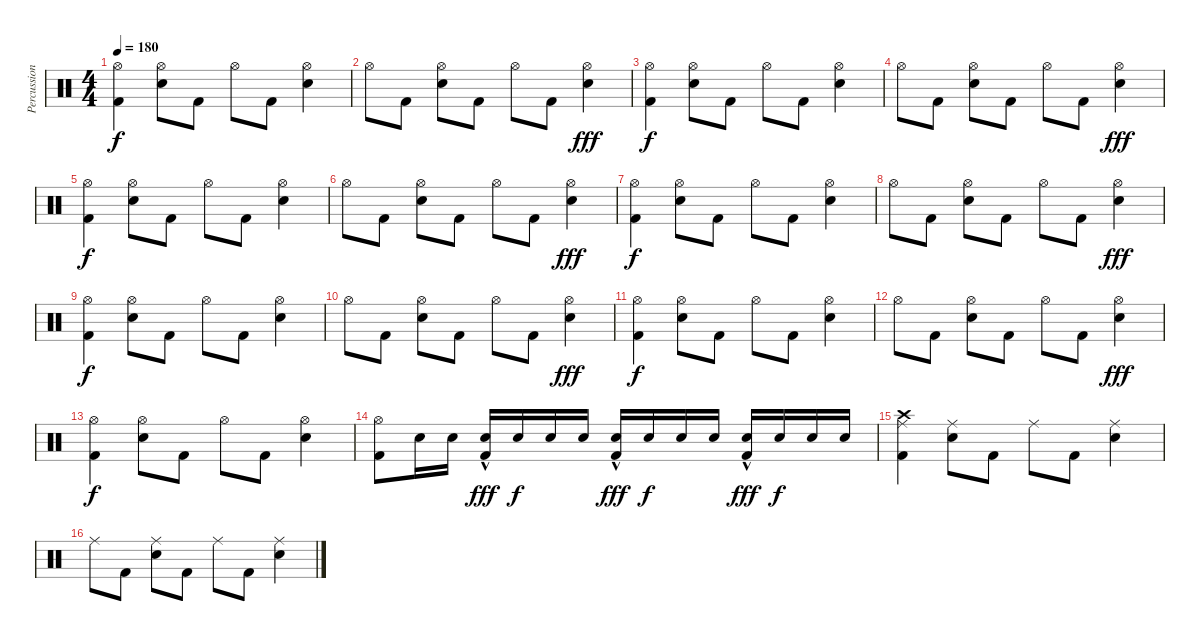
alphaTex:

\track ("Percussion" "Percussion") {instrument percussion}
\staff {score}
\articulation defaults
\ts (4 4)
\tempo 180
\clef neutral
\ks c
("Hi-Hat (open)" "Kick (hit) 2").4{dy f} ("Hi-Hat (open)" "Electric Snare (hit)").8 "Kick (hit) 2".8 "Hi-Hat (open)".8 "Kick (hit) 2".8 ("Hi-Hat (open)" "Electric Snare (hit)").4 |
"Hi-Hat (open)".8 "Kick (hit) 2".8 ("Hi-Hat (open)" "Electric Snare (hit)").8 "Kick (hit) 2".8 "Hi-Hat (open)".8 "Kick (hit) 2".8 ("Hi-Hat (open)" "Electric Snare (hit)").4{dy fff} |
("Hi-Hat (open)" "Kick (hit) 2").4{dy f} ("Hi-Hat (open)" "Electric Snare (hit)").8 "Kick (hit) 2".8 "Hi-Hat (open)".8 "Kick (hit) 2".8 ("Hi-Hat (open)" "Electric Snare (hit)").4 |
"Hi-Hat (open)".8 "Kick (hit) 2".8 ("Hi-Hat (open)" "Electric Snare (hit)").8 "Kick (hit) 2".8 "Hi-Hat (open)".8 "Kick (hit) 2".8 ("Hi-Hat (open)" "Electric Snare (hit)").4{dy fff} |
("Hi-Hat (open)" "Kick (hit) 2").4{dy f} ("Hi-Hat (open)" "Electric Snare (hit)").8 "Kick (hit) 2".8 "Hi-Hat (open)".8 "Kick (hit) 2".8 ("Hi-Hat (open)" "Electric Snare (hit)").4 |
"Hi-Hat (open)".8 "Kick (hit) 2".8 ("Hi-Hat (open)" "Electric Snare (hit)").8 "Kick (hit) 2".8 "Hi-Hat (open)".8 "Kick (hit) 2".8 ("Hi-Hat (open)" "Electric Snare (hit)").4{dy fff} |
("Hi-Hat (open)" "Kick (hit) 2").4{dy f} ("Hi-Hat (open)" "Electric Snare (hit)").8 "Kick (hit) 2".8 "Hi-Hat (open)".8 "Kick (hit) 2".8 ("Hi-Hat (open)" "Electric Snare (hit)").4 |
"Hi-Hat (open)".8 "Kick (hit) 2".8 ("Hi-Hat (open)" "Electric Snare (hit)").8 "Kick (hit) 2".8 "Hi-Hat (open)".8 "Kick (hit) 2".8 ("Hi-Hat (open)" "Electric Snare (hit)").4{dy fff} |
("Hi-Hat (open)" "Kick (hit) 2").4{dy f} ("Hi-Hat (open)" "Electric Snare (hit)").8 "Kick (hit) 2".8 "Hi-Hat (open)".8 "Kick (hit) 2".8 ("Hi-Hat (open)" "Electric Snare (hit)").4 |
"Hi-Hat (open)".8 "Kick (hit) 2".8 ("Hi-Hat (open)" "Electric Snare (hit)").8 "Kick (hit) 2".8 "Hi-Hat (open)".8 "Kick (hit) 2".8 ("Hi-Hat (open)" "Electric Snare (hit)").4{dy fff} |
("Hi-Hat (open)" "Kick (hit) 2").4{dy f} ("Hi-Hat (open)" "Electric Snare (hit)").8 "Kick (hit) 2".8 "Hi-Hat (open)".8 "Kick (hit) 2".8 ("Hi-Hat (open)" "Electric Snare (hit)").4 |
"Hi-Hat (open)".8 "Kick (hit) 2".8 ("Hi-Hat (open)" "Electric Snare (hit)").8 "Kick (hit) 2".8 "Hi-Hat (open)".8 "Kick (hit) 2".8 ("Hi-Hat (open)" "Electric Snare (hit)").4{dy fff} |
("Hi-Hat (open)" "Kick (hit) 2").4{dy f} ("Hi-Hat (open)" "Electric Snare (hit)").8 "Kick (hit) 2".8 "Hi-Hat (open)".8 "Kick (hit) 2".8 ("Hi-Hat (open)" "Electric Snare (hit)").4 |
("Hi-Hat (open)" "Kick (hit) 2").8 "Electric Snare (hit)".16 "Electric Snare (hit)".16 ("Electric Snare (hit)" "Kick (hit) 2"{hac}).16{dy fff} "Electric Snare (hit)".16{dy f} "Electric Snare (hit)".16 "Electric Snare (hit)".16 ("Electric Snare (hit)"{hac} "Kick (hit) 2").16{dy fff} "Electric Snare (hit)".16{dy f} "Electric Snare (hit)".16 "Electric Snare (hit)".16 ("Electric Snare (hit)" "Kick (hit) 2"{hac}).16{dy fff} "Electric Snare (hit)".16{dy f} "Electric Snare (hit)".16 "Electric Snare (hit)".16 |
("Ride (middle)" "Crash high (hit)" "Kick (hit) 2").4 ("Ride (middle)" "Electric Snare (hit)").8 "Kick (hit) 2".8 "Ride (middle)".8 "Kick (hit) 2".8 ("Ride (middle)" "Electric Snare (hit)").4 |
"Ride (middle)".8 "Kick (hit) 2".8 ("Ride (middle)" "Electric Snare (hit)").8 "Kick (hit) 2".8 "Ride (middle)".8 "Kick (hit) 2".8 ("Ride (middle)" "Electric Snare (hit)").4
